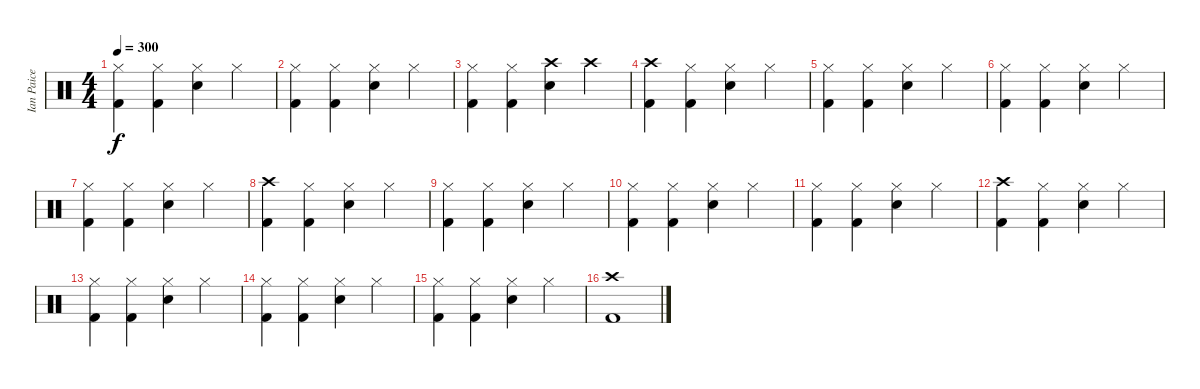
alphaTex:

\track ("Ian Paice" "Ian Paice") {instrument percussion}
\staff {score}
\articulation defaults
\ts (4 4)
\tempo 300
\clef neutral
\ks c
("Hi-Hat (closed)" "Kick (hit) 2").4{dy f} ("Hi-Hat (closed)" "Kick (hit) 2").4 ("Hi-Hat (closed)" "Electric Snare (hit)").4 "Hi-Hat (closed)".4 |
("Hi-Hat (closed)" "Kick (hit) 2").4 ("Hi-Hat (closed)" "Kick (hit) 2").4 ("Hi-Hat (closed)" "Electric Snare (hit)").4 "Hi-Hat (closed)".4 |
("Hi-Hat (closed)" "Kick (hit) 2").4 ("Hi-Hat (closed)" "Kick (hit) 2").4 ("Crash high (hit)" "Electric Snare (hit)").4 "Crash high (hit)".4 |
("Crash high (hit)" "Kick (hit) 2").4 ("Hi-Hat (closed)" "Kick (hit) 2").4 ("Hi-Hat (closed)" "Electric Snare (hit)").4 "Hi-Hat (closed)".4 |
("Hi-Hat (closed)" "Kick (hit) 2").4 ("Hi-Hat (closed)" "Kick (hit) 2").4 ("Hi-Hat (closed)" "Electric Snare (hit)").4 "Hi-Hat (closed)".4 |
("Hi-Hat (closed)" "Kick (hit) 2").4 ("Hi-Hat (closed)" "Kick (hit) 2").4 ("Hi-Hat (closed)" "Electric Snare (hit)").4 "Hi-Hat (closed)".4 |
("Hi-Hat (closed)" "Kick (hit) 2").4 ("Hi-Hat (closed)" "Kick (hit) 2").4 ("Hi-Hat (closed)" "Electric Snare (hit)").4 "Hi-Hat (closed)".4 |
("Crash high (hit)" "Kick (hit) 2").4 ("Hi-Hat (closed)" "Kick (hit) 2").4 ("Hi-Hat (closed)" "Electric Snare (hit)").4 "Hi-Hat (closed)".4 |
("Hi-Hat (closed)" "Kick (hit) 2").4 ("Hi-Hat (closed)" "Kick (hit) 2").4 ("Hi-Hat (closed)" "Electric Snare (hit)").4 "Hi-Hat (closed)".4 |
("Hi-Hat (closed)" "Kick (hit) 2").4 ("Hi-Hat (closed)" "Kick (hit) 2").4 ("Hi-Hat (closed)" "Electric Snare (hit)").4 "Hi-Hat (closed)".4 |
("Hi-Hat (closed)" "Kick (hit) 2").4 ("Hi-Hat (closed)" "Kick (hit) 2").4 ("Hi-Hat (closed)" "Electric Snare (hit)").4 "Hi-Hat (closed)".4 |
("Crash high (hit)" "Kick (hit) 2").4 ("Hi-Hat (closed)" "Kick (hit) 2").4 ("Hi-Hat (closed)" "Electric Snare (hit)").4 "Hi-Hat (closed)".4 |
("Hi-Hat (closed)" "Kick (hit) 2").4 ("Hi-Hat (closed)" "Kick (hit) 2").4 ("Hi-Hat (closed)" "Electric Snare (hit)").4 "Hi-Hat (closed)".4 |
("Hi-Hat (closed)" "Kick (hit) 2").4 ("Hi-Hat (closed)" "Kick (hit) 2").4 ("Hi-Hat (closed)" "Electric Snare (hit)").4 "Hi-Hat (closed)".4 |
("Hi-Hat (closed)" "Kick (hit) 2").4 ("Hi-Hat (closed)" "Kick (hit) 2").4 ("Hi-Hat (closed)" "Electric Snare (hit)").4 "Hi-Hat (closed)".4 |
("Crash high (hit)" "Kick (hit) 2").1
